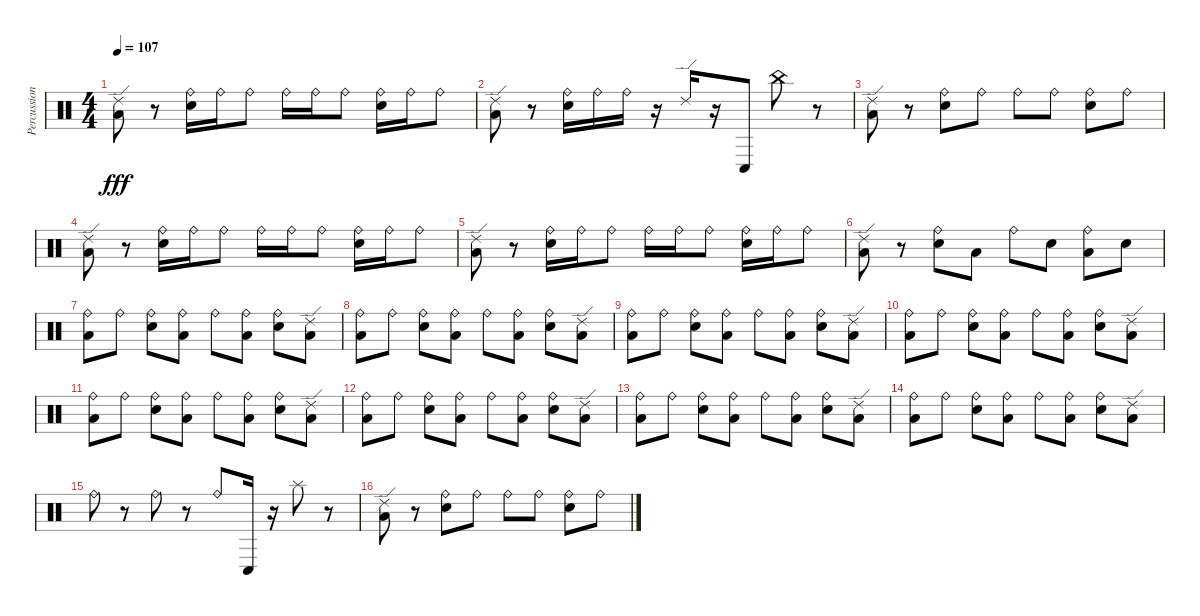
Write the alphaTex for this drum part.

\track ("Percussions" "Percussion") {instrument percussion}
\staff {score}
\articulation defaults
\ts (4 4)
\tempo 107
\clef neutral
\ks c
("Low Floor Tom (hit)" "Ride (edge) 2").8{dy fff} r.8 ("Electric Snare (hit)" "Ride (bell)").16 "Ride (bell)".16 "Ride (bell)".8 "Ride (bell)".16 "Ride (bell)".16 "Ride (bell)".8 ("Electric Snare (hit)" "Ride (bell)").16 "Ride (bell)".16 "Ride (bell)".8 |
("Low Floor Tom (hit)" "Ride (edge) 2").8 r.8 ("Electric Snare (hit)" "Ride (bell)").16 "Ride (bell)".16 "Ride (bell)".16 r.16 "Ride (edge) 2".16 r.16 "Conga low (hit)".8 "China (hit)".8 r.8 |
("Low Floor Tom (hit)" "Ride (edge) 2").8 r.8 ("Electric Snare (hit)" "Ride (bell)").8 "Ride (bell)".8 "Ride (bell)".8 "Ride (bell)".8 ("Electric Snare (hit)" "Ride (bell)").8 "Ride (bell)".8 |
("Low Floor Tom (hit)" "Ride (edge) 2").8 r.8 ("Electric Snare (hit)" "Ride (bell)").16 "Ride (bell)".16 "Ride (bell)".8 "Ride (bell)".16 "Ride (bell)".16 "Ride (bell)".8 ("Electric Snare (hit)" "Ride (bell)").16 "Ride (bell)".16 "Ride (bell)".8 |
("Low Floor Tom (hit)" "Ride (edge) 2").8 r.8 ("Electric Snare (hit)" "Ride (bell)").16 "Ride (bell)".16 "Ride (bell)".8 "Ride (bell)".16 "Ride (bell)".16 "Ride (bell)".8 ("Electric Snare (hit)" "Ride (bell)").16 "Ride (bell)".16 "Ride (bell)".8 |
("Ride (edge) 2" "Low Floor Tom (hit)").8 r.8 ("Ride (bell)" "Electric Snare (hit)").8 "Low Floor Tom (hit)".8 "Ride (bell)".8 "Electric Snare (hit)".8 ("Ride (bell)" "Low Floor Tom (hit)").8 "Electric Snare (hit)".8 |
("Low Floor Tom (hit)" "Ride (bell)").8 "Ride (bell)".8 ("Electric Snare (hit)" "Ride (bell)").8 ("Low Floor Tom (hit)" "Ride (bell)").8 "Ride (bell)".8 ("Low Floor Tom (hit)" "Ride (bell)").8 ("Electric Snare (hit)" "Ride (bell)").8 ("Low Floor Tom (hit)" "Ride (edge) 2").8 |
("Low Floor Tom (hit)" "Ride (bell)").8 "Ride (bell)".8 ("Electric Snare (hit)" "Ride (bell)").8 ("Low Floor Tom (hit)" "Ride (bell)").8 "Ride (bell)".8 ("Low Floor Tom (hit)" "Ride (bell)").8 ("Electric Snare (hit)" "Ride (bell)").8 ("Low Floor Tom (hit)" "Ride (edge) 2").8 |
("Low Floor Tom (hit)" "Ride (bell)").8 "Ride (bell)".8 ("Electric Snare (hit)" "Ride (bell)").8 ("Low Floor Tom (hit)" "Ride (bell)").8 "Ride (bell)".8 ("Low Floor Tom (hit)" "Ride (bell)").8 ("Electric Snare (hit)" "Ride (bell)").8 ("Low Floor Tom (hit)" "Ride (edge) 2").8 |
("Low Floor Tom (hit)" "Ride (bell)").8 "Ride (bell)".8 ("Electric Snare (hit)" "Ride (bell)").8 ("Low Floor Tom (hit)" "Ride (bell)").8 "Ride (bell)".8 ("Low Floor Tom (hit)" "Ride (bell)").8 ("Electric Snare (hit)" "Ride (bell)").8 ("Low Floor Tom (hit)" "Ride (edge) 2").8 |
("Low Floor Tom (hit)" "Ride (bell)").8 "Ride (bell)".8 ("Electric Snare (hit)" "Ride (bell)").8 ("Low Floor Tom (hit)" "Ride (bell)").8 "Ride (bell)".8 ("Low Floor Tom (hit)" "Ride (bell)").8 ("Electric Snare (hit)" "Ride (bell)").8 ("Low Floor Tom (hit)" "Ride (edge) 2").8 |
("Low Floor Tom (hit)" "Ride (bell)").8 "Ride (bell)".8 ("Electric Snare (hit)" "Ride (bell)").8 ("Low Floor Tom (hit)" "Ride (bell)").8 "Ride (bell)".8 ("Low Floor Tom (hit)" "Ride (bell)").8 ("Electric Snare (hit)" "Ride (bell)").8 ("Low Floor Tom (hit)" "Ride (edge) 2").8 |
("Low Floor Tom (hit)" "Ride (bell)").8 "Ride (bell)".8 ("Electric Snare (hit)" "Ride (bell)").8 ("Low Floor Tom (hit)" "Ride (bell)").8 "Ride (bell)".8 ("Low Floor Tom (hit)" "Ride (bell)").8 ("Electric Snare (hit)" "Ride (bell)").8 ("Low Floor Tom (hit)" "Ride (edge) 2").8 |
("Low Floor Tom (hit)" "Ride (bell)").8 "Ride (bell)".8 ("Electric Snare (hit)" "Ride (bell)").8 ("Low Floor Tom (hit)" "Ride (bell)").8 "Ride (bell)".8 ("Low Floor Tom (hit)" "Ride (bell)").8 ("Electric Snare (hit)" "Ride (bell)").8 ("Low Floor Tom (hit)" "Ride (edge) 2").8 |
"Ride (bell)".8 r.8 "Ride (bell)".8 r.8 "Ride (bell)".8 "Conga low (hit)".16 r.16 "Splash (hit)".8 r.8 |
("Low Floor Tom (hit)" "Ride (edge) 2").8 r.8 ("Ride (bell)" "Electric Snare (hit)").8 "Ride (bell)".8 "Ride (bell)".8 "Ride (bell)".8 ("Ride (bell)" "Electric Snare (hit)").8 "Ride (bell)".8
